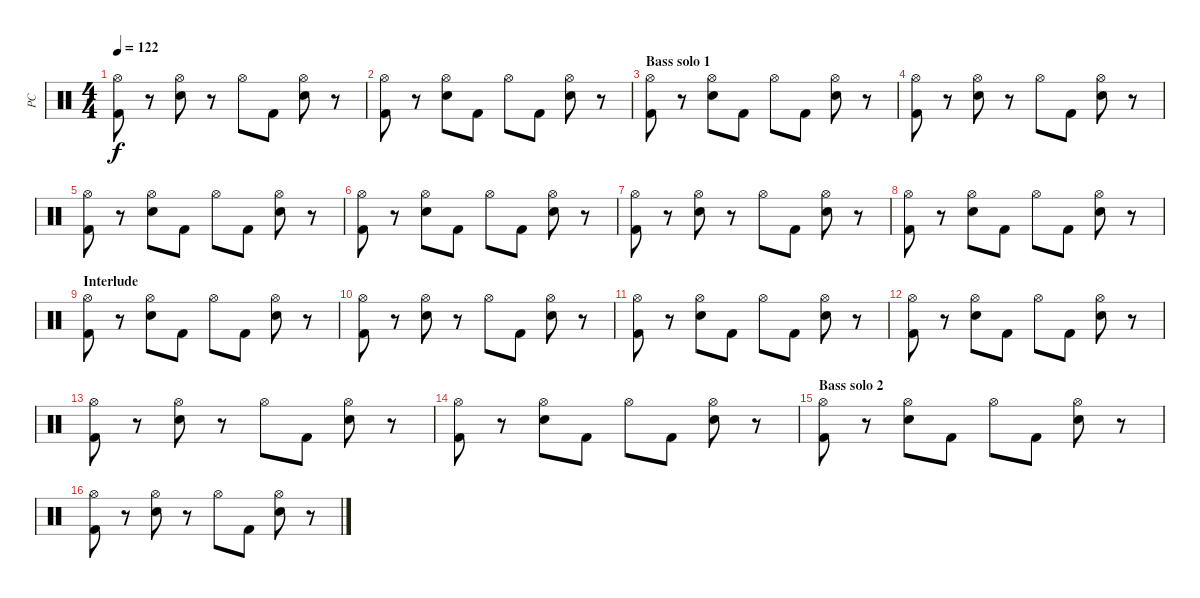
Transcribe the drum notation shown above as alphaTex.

\track ("PC" "PC") {instrument percussion}
\staff {score}
\articulation defaults
\ts (4 4)
\tempo 122
\clef neutral
\ks c
("Hi-Hat (open)" "Kick (hit) 2").8{dy f} r.8 ("Hi-Hat (open)" "Electric Snare (hit)").8 r.8 "Hi-Hat (open)".8 "Kick (hit) 2".8 ("Hi-Hat (open)" "Electric Snare (hit)").8 r.8 |
("Hi-Hat (open)" "Kick (hit) 2").8 r.8 ("Hi-Hat (open)" "Electric Snare (hit)").8 "Kick (hit) 2".8 "Hi-Hat (open)".8 "Kick (hit) 2".8 ("Hi-Hat (open)" "Electric Snare (hit)").8 r.8 |
\section ("" "Bass solo 1")
("Hi-Hat (open)" "Kick (hit) 2").8 r.8 ("Hi-Hat (open)" "Electric Snare (hit)").8 "Kick (hit) 2".8 "Hi-Hat (open)".8 "Kick (hit) 2".8 ("Hi-Hat (open)" "Electric Snare (hit)").8 r.8 |
("Hi-Hat (open)" "Kick (hit) 2").8 r.8 ("Hi-Hat (open)" "Electric Snare (hit)").8 r.8 "Hi-Hat (open)".8 "Kick (hit) 2".8 ("Hi-Hat (open)" "Electric Snare (hit)").8 r.8 |
("Hi-Hat (open)" "Kick (hit) 2").8 r.8 ("Hi-Hat (open)" "Electric Snare (hit)").8 "Kick (hit) 2".8 "Hi-Hat (open)".8 "Kick (hit) 2".8 ("Hi-Hat (open)" "Electric Snare (hit)").8 r.8 |
("Hi-Hat (open)" "Kick (hit) 2").8 r.8 ("Hi-Hat (open)" "Electric Snare (hit)").8 "Kick (hit) 2".8 "Hi-Hat (open)".8 "Kick (hit) 2".8 ("Hi-Hat (open)" "Electric Snare (hit)").8 r.8 |
("Hi-Hat (open)" "Kick (hit) 2").8 r.8 ("Hi-Hat (open)" "Electric Snare (hit)").8 r.8 "Hi-Hat (open)".8 "Kick (hit) 2".8 ("Hi-Hat (open)" "Electric Snare (hit)").8 r.8 |
("Hi-Hat (open)" "Kick (hit) 2").8 r.8 ("Hi-Hat (open)" "Electric Snare (hit)").8 "Kick (hit) 2".8 "Hi-Hat (open)".8 "Kick (hit) 2".8 ("Hi-Hat (open)" "Electric Snare (hit)").8 r.8 |
\section ("" "Interlude")
("Hi-Hat (open)" "Kick (hit) 2").8 r.8 ("Hi-Hat (open)" "Electric Snare (hit)").8 "Kick (hit) 2".8 "Hi-Hat (open)".8 "Kick (hit) 2".8 ("Hi-Hat (open)" "Electric Snare (hit)").8 r.8 |
("Hi-Hat (open)" "Kick (hit) 2").8 r.8 ("Hi-Hat (open)" "Electric Snare (hit)").8 r.8 "Hi-Hat (open)".8 "Kick (hit) 2".8 ("Hi-Hat (open)" "Electric Snare (hit)").8 r.8 |
("Hi-Hat (open)" "Kick (hit) 2").8 r.8 ("Hi-Hat (open)" "Electric Snare (hit)").8 "Kick (hit) 2".8 "Hi-Hat (open)".8 "Kick (hit) 2".8 ("Hi-Hat (open)" "Electric Snare (hit)").8 r.8 |
("Hi-Hat (open)" "Kick (hit) 2").8 r.8 ("Hi-Hat (open)" "Electric Snare (hit)").8 "Kick (hit) 2".8 "Hi-Hat (open)".8 "Kick (hit) 2".8 ("Hi-Hat (open)" "Electric Snare (hit)").8 r.8 |
("Hi-Hat (open)" "Kick (hit) 2").8 r.8 ("Hi-Hat (open)" "Electric Snare (hit)").8 r.8 "Hi-Hat (open)".8 "Kick (hit) 2".8 ("Hi-Hat (open)" "Electric Snare (hit)").8 r.8 |
("Hi-Hat (open)" "Kick (hit) 2").8 r.8 ("Hi-Hat (open)" "Electric Snare (hit)").8 "Kick (hit) 2".8 "Hi-Hat (open)".8 "Kick (hit) 2".8 ("Hi-Hat (open)" "Electric Snare (hit)").8 r.8 |
\section ("" "Bass solo 2")
("Hi-Hat (open)" "Kick (hit) 2").8 r.8 ("Hi-Hat (open)" "Electric Snare (hit)").8 "Kick (hit) 2".8 "Hi-Hat (open)".8 "Kick (hit) 2".8 ("Hi-Hat (open)" "Electric Snare (hit)").8 r.8 |
("Hi-Hat (open)" "Kick (hit) 2").8 r.8 ("Hi-Hat (open)" "Electric Snare (hit)").8 r.8 "Hi-Hat (open)".8 "Kick (hit) 2".8 ("Hi-Hat (open)" "Electric Snare (hit)").8 r.8
